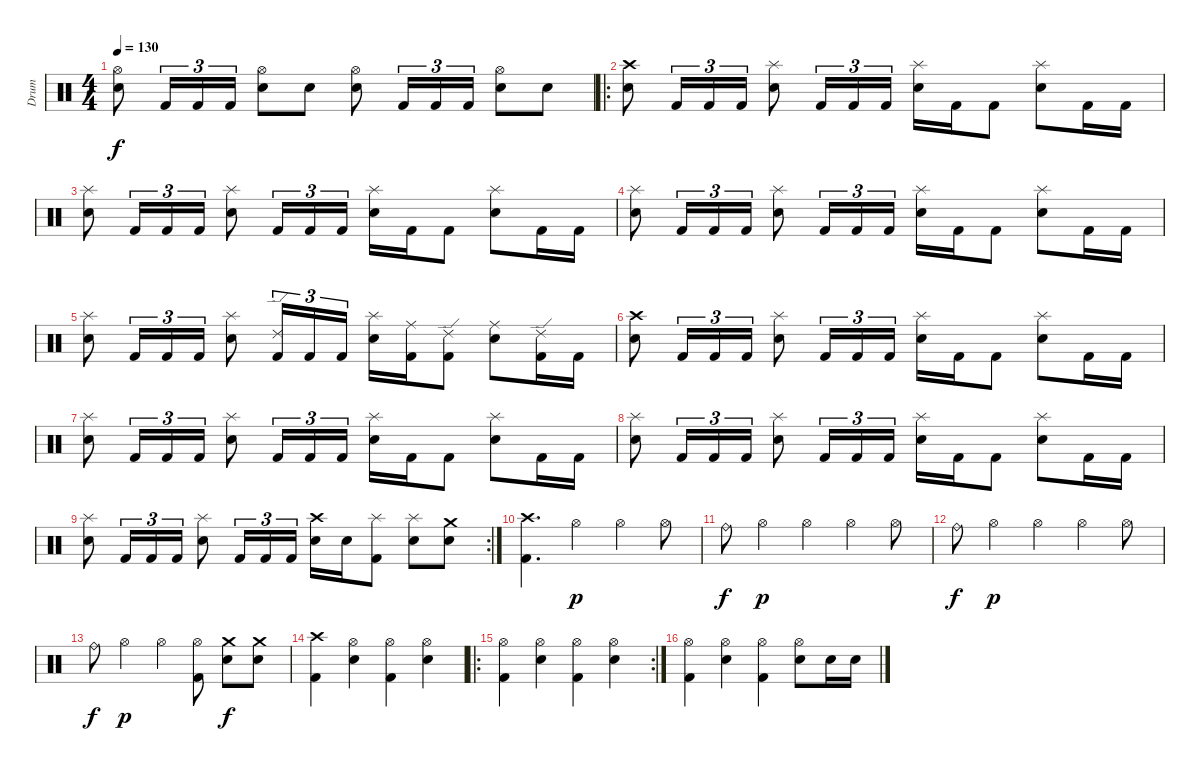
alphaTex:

\track ("Drum" "Drum") {instrument percussion}
\staff {score}
\articulation defaults
\ts (4 4)
\tempo 130
\clef neutral
\ks c
("Electric Snare (hit)" "Hi-Hat (open)").8{dy f} "Kick (hit) 2".16{tu (3 2)} "Kick (hit) 2".16{tu (3 2)} "Kick (hit) 2".16{tu (3 2)} ("Electric Snare (hit)" "Hi-Hat (open)").8 "Electric Snare (hit)".8 ("Electric Snare (hit)" "Hi-Hat (open)").8 "Kick (hit) 2".16{tu (3 2)} "Kick (hit) 2".16{tu (3 2)} "Kick (hit) 2".16{tu (3 2)} ("Electric Snare (hit)" "Hi-Hat (open)").8 "Electric Snare (hit)".8 |
\ro
("Electric Snare (hit)" "Crash high (hit)").8 "Kick (hit) 2".16{tu (3 2)} "Kick (hit) 2".16{tu (3 2)} "Kick (hit) 2".16{tu (3 2)} ("Electric Snare (hit)" "Splash (hit)").8 "Kick (hit) 2".16{tu (3 2)} "Kick (hit) 2".16{tu (3 2)} "Kick (hit) 2".16{tu (3 2)} ("Electric Snare (hit)" "Splash (hit)").16 "Kick (hit) 2".16 "Kick (hit) 2".8 ("Electric Snare (hit)" "Splash (hit)").8 "Kick (hit) 2".16 "Kick (hit) 2".16 |
("Electric Snare (hit)" "Splash (hit)").8 "Kick (hit) 2".16{tu (3 2)} "Kick (hit) 2".16{tu (3 2)} "Kick (hit) 2".16{tu (3 2)} ("Electric Snare (hit)" "Splash (hit)").8 "Kick (hit) 2".16{tu (3 2)} "Kick (hit) 2".16{tu (3 2)} "Kick (hit) 2".16{tu (3 2)} ("Electric Snare (hit)" "Splash (hit)").16 "Kick (hit) 2".16 "Kick (hit) 2".8 ("Electric Snare (hit)" "Splash (hit)").8 "Kick (hit) 2".16 "Kick (hit) 2".16 |
("Electric Snare (hit)" "Splash (hit)").8 "Kick (hit) 2".16{tu (3 2)} "Kick (hit) 2".16{tu (3 2)} "Kick (hit) 2".16{tu (3 2)} ("Electric Snare (hit)" "Splash (hit)").8 "Kick (hit) 2".16{tu (3 2)} "Kick (hit) 2".16{tu (3 2)} "Kick (hit) 2".16{tu (3 2)} ("Electric Snare (hit)" "Splash (hit)").16 "Kick (hit) 2".16 "Kick (hit) 2".8 ("Electric Snare (hit)" "Splash (hit)").8 "Kick (hit) 2".16 "Kick (hit) 2".16 |
("Electric Snare (hit)" "Splash (hit)").8 "Kick (hit) 2".16{tu (3 2)} "Kick (hit) 2".16{tu (3 2)} "Kick (hit) 2".16{tu (3 2)} ("Electric Snare (hit)" "Splash (hit)").8 ("Kick (hit) 2" "Ride (edge) 2").16{tu (3 2)} "Kick (hit) 2".16{tu (3 2)} "Kick (hit) 2".16{tu (3 2)} ("Electric Snare (hit)" "Splash (hit)").16 ("Kick (hit) 2" "Ride (middle)").16 ("Kick (hit) 2" "Ride (edge) 2").8 ("Electric Snare (hit)" "Ride (middle)").8 ("Kick (hit) 2" "Ride (edge) 2").16 "Kick (hit) 2".16 |
("Electric Snare (hit)" "Crash high (hit)").8 "Kick (hit) 2".16{tu (3 2)} "Kick (hit) 2".16{tu (3 2)} "Kick (hit) 2".16{tu (3 2)} ("Electric Snare (hit)" "Splash (hit)").8 "Kick (hit) 2".16{tu (3 2)} "Kick (hit) 2".16{tu (3 2)} "Kick (hit) 2".16{tu (3 2)} ("Electric Snare (hit)" "Splash (hit)").16 "Kick (hit) 2".16 "Kick (hit) 2".8 ("Electric Snare (hit)" "Splash (hit)").8 "Kick (hit) 2".16 "Kick (hit) 2".16 |
("Electric Snare (hit)" "Splash (hit)").8 "Kick (hit) 2".16{tu (3 2)} "Kick (hit) 2".16{tu (3 2)} "Kick (hit) 2".16{tu (3 2)} ("Electric Snare (hit)" "Splash (hit)").8 "Kick (hit) 2".16{tu (3 2)} "Kick (hit) 2".16{tu (3 2)} "Kick (hit) 2".16{tu (3 2)} ("Electric Snare (hit)" "Splash (hit)").16 "Kick (hit) 2".16 "Kick (hit) 2".8 ("Electric Snare (hit)" "Splash (hit)").8 "Kick (hit) 2".16 "Kick (hit) 2".16 |
("Electric Snare (hit)" "Splash (hit)").8 "Kick (hit) 2".16{tu (3 2)} "Kick (hit) 2".16{tu (3 2)} "Kick (hit) 2".16{tu (3 2)} ("Electric Snare (hit)" "Splash (hit)").8 "Kick (hit) 2".16{tu (3 2)} "Kick (hit) 2".16{tu (3 2)} "Kick (hit) 2".16{tu (3 2)} ("Electric Snare (hit)" "Splash (hit)").16 "Kick (hit) 2".16 "Kick (hit) 2".8 ("Electric Snare (hit)" "Splash (hit)").8 "Kick (hit) 2".16 "Kick (hit) 2".16 |
\rc 2
("Electric Snare (hit)" "Splash (hit)").8 "Kick (hit) 2".16{tu (3 2)} "Kick (hit) 2".16{tu (3 2)} "Kick (hit) 2".16{tu (3 2)} ("Electric Snare (hit)" "Splash (hit)").8 "Kick (hit) 2".16{tu (3 2)} "Kick (hit) 2".16{tu (3 2)} "Kick (hit) 2".16{tu (3 2)} ("Electric Snare (hit)" "Crash high (hit)").16 "Electric Snare (hit)".16 ("Kick (hit) 2" "Splash (hit)").8 ("Electric Snare (hit)" "Splash (hit)").8 ("Electric Snare (hit)" "Crash medium (hit)").8 |
("Kick (hit) 2" "Crash high (hit)").4{d} "Hi-Hat (open)".4{dy p} "Hi-Hat (open)".4 "Hi-Hat (open)".8 |
"Ride (bell)".8{dy f} "Hi-Hat (open)".4{dy p} "Hi-Hat (open)".4 "Hi-Hat (open)".4 "Hi-Hat (open)".8 |
"Ride (bell)".8{dy f} "Hi-Hat (open)".4{dy p} "Hi-Hat (open)".4 "Hi-Hat (open)".4 "Hi-Hat (open)".8 |
"Ride (bell)".8{dy f} "Hi-Hat (open)".4{dy p} "Hi-Hat (open)".4 ("Kick (hit) 2" "Hi-Hat (open)").8 ("Electric Snare (hit)" "Crash medium (hit)").8{dy f} ("Electric Snare (hit)" "Crash medium (hit)").8 |
("Kick (hit) 2" "Crash high (hit)").4 ("Electric Snare (hit)" "Hi-Hat (open)").4 ("Kick (hit) 2" "Hi-Hat (open)").4 ("Electric Snare (hit)" "Hi-Hat (open)").4 |
\ro
\rc 2
("Kick (hit) 2" "Hi-Hat (open)").4 ("Electric Snare (hit)" "Hi-Hat (open)").4 ("Kick (hit) 2" "Hi-Hat (open)").4 ("Electric Snare (hit)" "Hi-Hat (open)").4 |
("Kick (hit) 2" "Hi-Hat (open)").4 ("Electric Snare (hit)" "Hi-Hat (open)").4 ("Kick (hit) 2" "Hi-Hat (open)").4 ("Electric Snare (hit)" "Hi-Hat (open)").8 "Electric Snare (hit)".16 "Electric Snare (hit)".16
